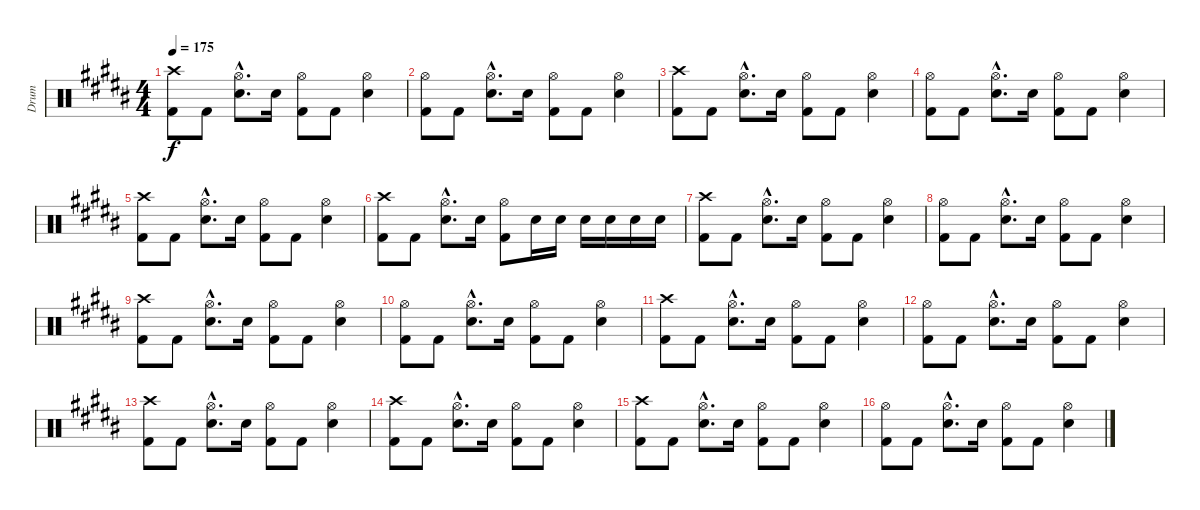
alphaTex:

\track ("Drum" "Drum") {instrument percussion}
\staff {score}
\articulation defaults
\ts (4 4)
\tempo 175
\clef neutral
\ks b
("Crash high (hit)" "Kick (hit) 2").8{dy f} "Kick (hit) 2".8 ("Hi-Hat (open)"{hac} "Snare (hit) 2"{hac}).8{d} "Snare (hit) 2".16 ("Hi-Hat (open)" "Kick (hit) 2").8 "Kick (hit) 2".8 ("Hi-Hat (open)" "Snare (hit) 2").4 |
("Hi-Hat (open)" "Kick (hit) 2").8 "Kick (hit) 2".8 ("Hi-Hat (open)"{hac} "Snare (hit) 2"{hac}).8{d} "Snare (hit) 2".16 ("Hi-Hat (open)" "Kick (hit) 2").8 "Kick (hit) 2".8 ("Hi-Hat (open)" "Snare (hit) 2").4 |
("Crash high (hit)" "Kick (hit) 2").8 "Kick (hit) 2".8 ("Hi-Hat (open)"{hac} "Snare (hit) 2"{hac}).8{d} "Snare (hit) 2".16 ("Hi-Hat (open)" "Kick (hit) 2").8 "Kick (hit) 2".8 ("Hi-Hat (open)" "Snare (hit) 2").4 |
("Hi-Hat (open)" "Kick (hit) 2").8 "Kick (hit) 2".8 ("Hi-Hat (open)"{hac} "Snare (hit) 2"{hac}).8{d} "Snare (hit) 2".16 ("Hi-Hat (open)" "Kick (hit) 2").8 "Kick (hit) 2".8 ("Hi-Hat (open)" "Snare (hit) 2").4 |
("Crash high (hit)" "Kick (hit) 2").8 "Kick (hit) 2".8 ("Hi-Hat (open)"{hac} "Snare (hit) 2"{hac}).8{d} "Snare (hit) 2".16 ("Hi-Hat (open)" "Kick (hit) 2").8 "Kick (hit) 2".8 ("Hi-Hat (open)" "Snare (hit) 2").4 |
("Crash high (hit)" "Kick (hit) 2").8 "Kick (hit) 2".8 ("Hi-Hat (open)"{hac} "Snare (hit) 2"{hac}).8{d} "Snare (hit) 2".16 ("Hi-Hat (open)" "Kick (hit) 2").8 "Snare (hit) 2".16 "Snare (hit) 2".16 "Snare (hit) 2".16 "Snare (hit) 2".16 "Snare (hit) 2".16 "Snare (hit) 2".16 |
("Crash high (hit)" "Kick (hit) 2").8 "Kick (hit) 2".8 ("Hi-Hat (open)"{hac} "Snare (hit) 2"{hac}).8{d} "Snare (hit) 2".16 ("Hi-Hat (open)" "Kick (hit) 2").8 "Kick (hit) 2".8 ("Hi-Hat (open)" "Snare (hit) 2").4 |
("Hi-Hat (open)" "Kick (hit) 2").8 "Kick (hit) 2".8 ("Hi-Hat (open)"{hac} "Snare (hit) 2"{hac}).8{d} "Snare (hit) 2".16 ("Hi-Hat (open)" "Kick (hit) 2").8 "Kick (hit) 2".8 ("Hi-Hat (open)" "Snare (hit) 2").4 |
("Crash high (hit)" "Kick (hit) 2").8 "Kick (hit) 2".8 ("Hi-Hat (open)"{hac} "Snare (hit) 2"{hac}).8{d} "Snare (hit) 2".16 ("Hi-Hat (open)" "Kick (hit) 2").8 "Kick (hit) 2".8 ("Hi-Hat (open)" "Snare (hit) 2").4 |
("Hi-Hat (open)" "Kick (hit) 2").8 "Kick (hit) 2".8 ("Hi-Hat (open)"{hac} "Snare (hit) 2"{hac}).8{d} "Snare (hit) 2".16 ("Hi-Hat (open)" "Kick (hit) 2").8 "Kick (hit) 2".8 ("Hi-Hat (open)" "Snare (hit) 2").4 |
("Crash high (hit)" "Kick (hit) 2").8 "Kick (hit) 2".8 ("Hi-Hat (open)"{hac} "Snare (hit) 2"{hac}).8{d} "Snare (hit) 2".16 ("Hi-Hat (open)" "Kick (hit) 2").8 "Kick (hit) 2".8 ("Hi-Hat (open)" "Snare (hit) 2").4 |
("Hi-Hat (open)" "Kick (hit) 2").8 "Kick (hit) 2".8 ("Hi-Hat (open)"{hac} "Snare (hit) 2"{hac}).8{d} "Snare (hit) 2".16 ("Hi-Hat (open)" "Kick (hit) 2").8 "Kick (hit) 2".8 ("Hi-Hat (open)" "Snare (hit) 2").4 |
("Crash high (hit)" "Kick (hit) 2").8 "Kick (hit) 2".8 ("Hi-Hat (open)"{hac} "Snare (hit) 2"{hac}).8{d} "Snare (hit) 2".16 ("Hi-Hat (open)" "Kick (hit) 2").8 "Kick (hit) 2".8 ("Hi-Hat (open)" "Snare (hit) 2").4 |
("Crash high (hit)" "Kick (hit) 2").8 "Kick (hit) 2".8 ("Hi-Hat (open)"{hac} "Snare (hit) 2"{hac}).8{d} "Snare (hit) 2".16 ("Hi-Hat (open)" "Kick (hit) 2").8 "Kick (hit) 2".8 ("Hi-Hat (open)" "Snare (hit) 2").4 |
("Crash high (hit)" "Kick (hit) 2").8 "Kick (hit) 2".8 ("Hi-Hat (open)"{hac} "Snare (hit) 2"{hac}).8{d} "Snare (hit) 2".16 ("Hi-Hat (open)" "Kick (hit) 2").8 "Kick (hit) 2".8 ("Hi-Hat (open)" "Snare (hit) 2").4 |
("Hi-Hat (open)" "Kick (hit) 2").8 "Kick (hit) 2".8 ("Hi-Hat (open)"{hac} "Snare (hit) 2"{hac}).8{d} "Snare (hit) 2".16 ("Hi-Hat (open)" "Kick (hit) 2").8 "Kick (hit) 2".8 ("Hi-Hat (open)" "Snare (hit) 2").4
